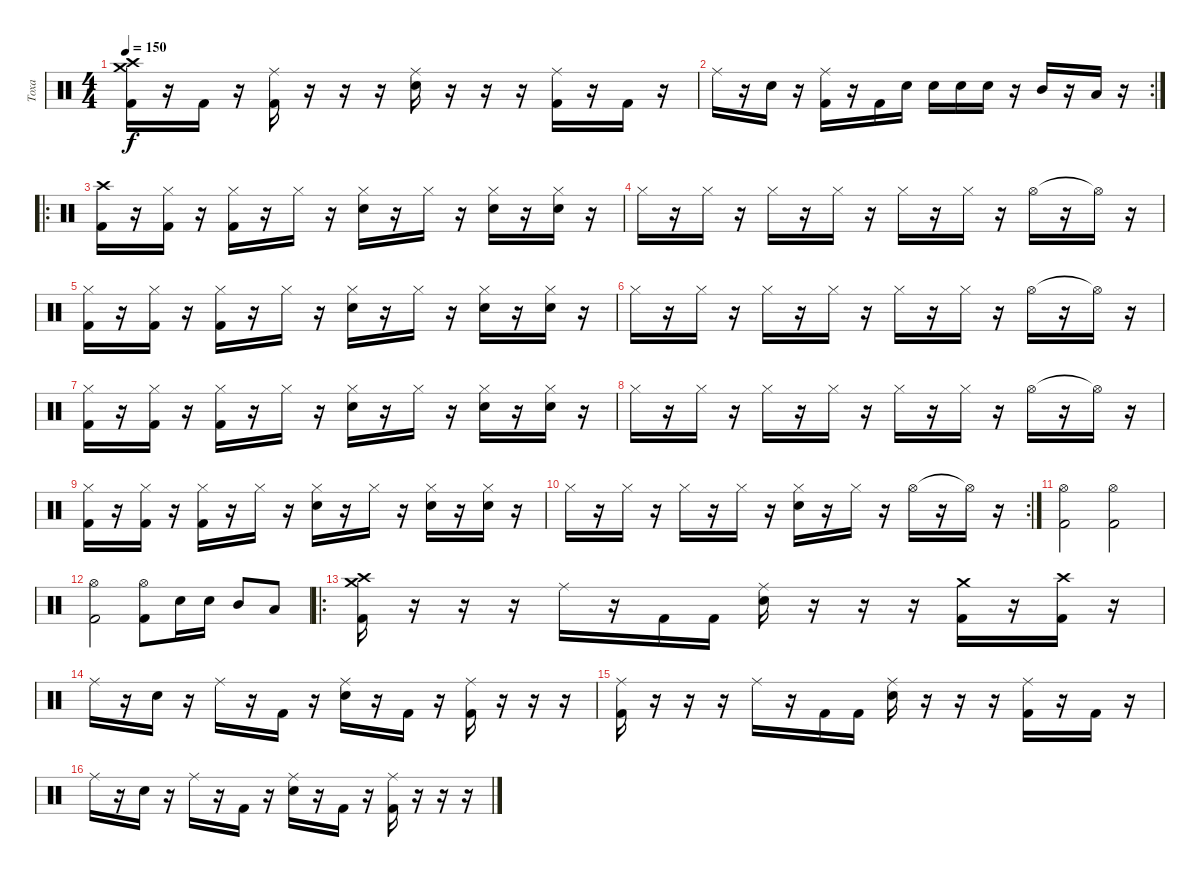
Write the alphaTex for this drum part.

\track ("Тоха" "Тоха") {instrument percussion}
\staff {score}
\articulation defaults
\ts (4 4)
\tempo 150
\clef neutral
\ks c
("Crash high (hit)" "Crash medium (hit)" "Kick (hit) 2").16{dy f} r.16 "Kick (hit) 2".16 r.16 ("Ride (middle)" "Kick (hit) 2").16 r.16 r.16 r.16 ("Ride (middle)" "Electric Snare (hit)").16 r.16 r.16 r.16 ("Ride (middle)" "Kick (hit) 2").16 r.16 "Kick (hit) 2".16 r.16 |
\rc 2 "Ride (middle)".16
r.16 "Electric Snare (hit)".16 r.16 ("Ride (middle)" "Kick (hit) 2").16 r.16 "Kick (hit) 2".16 "Electric Snare (hit)".16 "Electric Snare (hit)".16 "Electric Snare (hit)".16 "Electric Snare (hit)".16 r.16 "Mid Tom (hit)".16 r.16 "Low Tom (hit)".16 r.16 |
\ro
("Crash high (hit)" "Kick (hit) 2").16 r.16 ("Hi-Hat (closed)" "Kick (hit) 2").16 r.16 ("Hi-Hat (closed)" "Kick (hit) 2").16 r.16 "Hi-Hat (closed)".16 r.16 ("Hi-Hat (closed)" "Electric Snare (hit)").16 r.16 "Hi-Hat (closed)".16 r.16 ("Hi-Hat (closed)" "Electric Snare (hit)").16 r.16 ("Hi-Hat (closed)" "Electric Snare (hit)").16 r.16 |
"Hi-Hat (closed)".16 r.16 "Hi-Hat (closed)".16 r.16 "Hi-Hat (closed)".16 r.16 "Hi-Hat (closed)".16 r.16 "Hi-Hat (closed)".16 r.16 "Hi-Hat (closed)".16 r.16 "Hi-Hat (open)".16 r.16 "Hi-Hat (open)"{t}.16 r.16 |
("Hi-Hat (closed)" "Kick (hit) 2").16 r.16 ("Hi-Hat (closed)" "Kick (hit) 2").16 r.16 ("Hi-Hat (closed)" "Kick (hit) 2").16 r.16 "Hi-Hat (closed)".16 r.16 ("Hi-Hat (closed)" "Electric Snare (hit)").16 r.16 "Hi-Hat (closed)".16 r.16 ("Hi-Hat (closed)" "Electric Snare (hit)").16 r.16 ("Hi-Hat (closed)" "Electric Snare (hit)").16 r.16 |
"Hi-Hat (closed)".16 r.16 "Hi-Hat (closed)".16 r.16 "Hi-Hat (closed)".16 r.16 "Hi-Hat (closed)".16 r.16 "Hi-Hat (closed)".16 r.16 "Hi-Hat (closed)".16 r.16 "Hi-Hat (open)".16 r.16 "Hi-Hat (open)"{t}.16 r.16 |
("Hi-Hat (closed)" "Kick (hit) 2").16 r.16 ("Hi-Hat (closed)" "Kick (hit) 2").16 r.16 ("Hi-Hat (closed)" "Kick (hit) 2").16 r.16 "Hi-Hat (closed)".16 r.16 ("Hi-Hat (closed)" "Electric Snare (hit)").16 r.16 "Hi-Hat (closed)".16 r.16 ("Hi-Hat (closed)" "Electric Snare (hit)").16 r.16 ("Hi-Hat (closed)" "Electric Snare (hit)").16 r.16 |
"Hi-Hat (closed)".16 r.16 "Hi-Hat (closed)".16 r.16 "Hi-Hat (closed)".16 r.16 "Hi-Hat (closed)".16 r.16 "Hi-Hat (closed)".16 r.16 "Hi-Hat (closed)".16 r.16 "Hi-Hat (open)".16 r.16 "Hi-Hat (open)"{t}.16 r.16 |
("Hi-Hat (closed)" "Kick (hit) 2").16 r.16 ("Hi-Hat (closed)" "Kick (hit) 2").16 r.16 ("Hi-Hat (closed)" "Kick (hit) 2").16 r.16 "Hi-Hat (closed)".16 r.16 ("Hi-Hat (closed)" "Electric Snare (hit)").16 r.16 "Hi-Hat (closed)".16 r.16 ("Hi-Hat (closed)" "Electric Snare (hit)").16 r.16 ("Hi-Hat (closed)" "Electric Snare (hit)").16 r.16 |
\rc 2 "Hi-Hat (closed)".16
r.16 "Hi-Hat (closed)".16 r.16 "Hi-Hat (closed)".16 r.16 "Hi-Hat (closed)".16 r.16 ("Hi-Hat (closed)" "Electric Snare (hit)").16 r.16 "Hi-Hat (closed)".16 r.16 "Hi-Hat (open)".16 r.16 "Hi-Hat (open)"{t}.16 r.16 |
("Hi-Hat (open)" "Kick (hit) 2").2 ("Hi-Hat (open)" "Kick (hit) 2").2 |
("Hi-Hat (open)" "Kick (hit) 2").2 ("Hi-Hat (open)" "Kick (hit) 2").8 "Electric Snare (hit)".16 "Electric Snare (hit)".16 "Mid Tom (hit)".8 "Low Tom (hit)".8 |
\ro
("Crash high (hit)" "Crash medium (hit)" "Kick (hit) 2").16 r.16 r.16 r.16 "Ride (middle)".16 r.16 "Kick (hit) 2".16 "Kick (hit) 2".16 ("Ride (middle)" "Electric Snare (hit)").16 r.16 r.16 r.16 ("Crash medium (hit)" "Kick (hit) 2").16 r.16 ("Crash high (hit)" "Kick (hit) 2").16 r.16 |
"Ride (middle)".16 r.16 "Electric Snare (hit)".16 r.16 "Ride (middle)".16 r.16 "Kick (hit) 2".16 r.16 ("Ride (middle)" "Electric Snare (hit)").16 r.16 "Kick (hit) 2".16 r.16 ("Ride (middle)" "Kick (hit) 2").16 r.16 r.16 r.16 |
("Ride (middle)" "Kick (hit) 2").16 r.16 r.16 r.16 "Ride (middle)".16 r.16 "Kick (hit) 2".16 "Kick (hit) 2".16 ("Ride (middle)" "Electric Snare (hit)").16 r.16 r.16 r.16 ("Ride (middle)" "Kick (hit) 2").16 r.16 "Kick (hit) 2".16 r.16 |
"Ride (middle)".16 r.16 "Electric Snare (hit)".16 r.16 "Ride (middle)".16 r.16 "Kick (hit) 2".16 r.16 ("Ride (middle)" "Electric Snare (hit)").16 r.16 "Kick (hit) 2".16 r.16 ("Ride (middle)" "Kick (hit) 2").16 r.16 r.16 r.16
